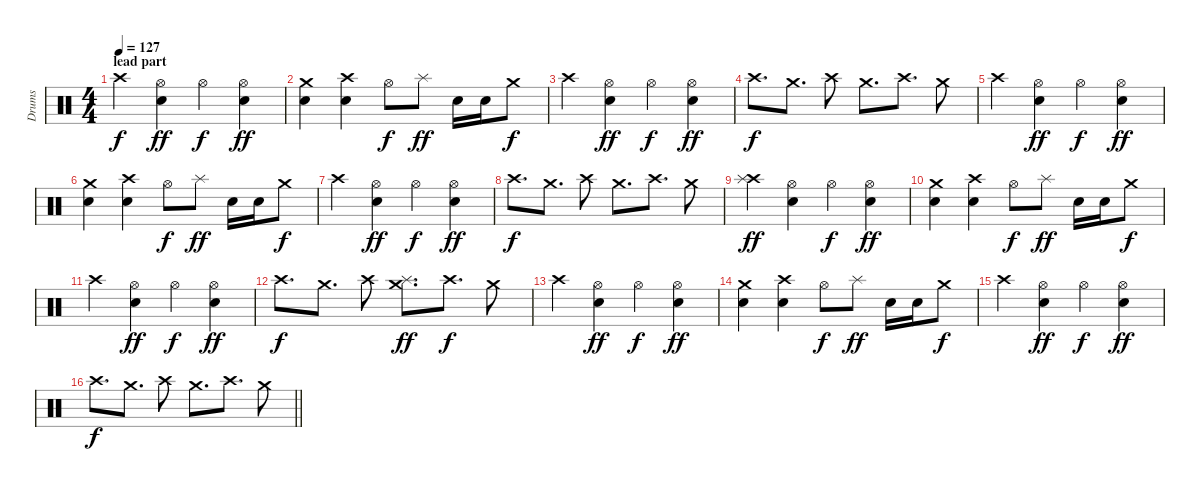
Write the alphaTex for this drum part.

\track ("Drums" "Drums") {instrument percussion}
\staff {score}
\articulation defaults
\ts (4 4)
\section ("" "lead part")
\tempo 127
\clef neutral
\ks c "Crash high (hit)".4{dy f}
("Hi-Hat (open)" "Snare (hit) 2").4{dy ff} "Hi-Hat (open)".4{dy f} ("Hi-Hat (open)" "Snare (hit) 2").4{dy ff} |
("Crash medium (hit)" "Snare (hit) 2").4 ("Crash high (hit)" "Snare (hit) 2").4 "Hi-Hat (open)".8{dy f} "Splash (hit)".8{dy ff} "Snare (hit) 2".16 "Snare (hit) 2".16 "Crash medium (hit)".8{dy f} |
"Crash high (hit)".4 ("Hi-Hat (open)" "Snare (hit) 2").4{dy ff} "Hi-Hat (open)".4{dy f} ("Hi-Hat (open)" "Snare (hit) 2").4{dy ff} |
"Crash high (hit)".8{d dy f} "Crash medium (hit)".8{d} "Crash high (hit)".8 "Crash medium (hit)".8{d} "Crash high (hit)".8{d} "Crash medium (hit)".8 |
"Crash high (hit)".4 ("Hi-Hat (open)" "Snare (hit) 2").4{dy ff} "Hi-Hat (open)".4{dy f} ("Hi-Hat (open)" "Snare (hit) 2").4{dy ff} |
("Crash medium (hit)" "Snare (hit) 2").4 ("Crash high (hit)" "Snare (hit) 2").4 "Hi-Hat (open)".8{dy f} "Splash (hit)".8{dy ff} "Snare (hit) 2".16 "Snare (hit) 2".16 "Crash medium (hit)".8{dy f} |
"Crash high (hit)".4 ("Hi-Hat (open)" "Snare (hit) 2").4{dy ff} "Hi-Hat (open)".4{dy f} ("Hi-Hat (open)" "Snare (hit) 2").4{dy ff} |
"Crash high (hit)".8{d dy f} "Crash medium (hit)".8{d} "Crash high (hit)".8 "Crash medium (hit)".8{d} "Crash high (hit)".8{d} "Crash medium (hit)".8 |
("Crash high (hit)" "Splash (hit)").4{dy ff} ("Hi-Hat (open)" "Snare (hit) 2").4 "Hi-Hat (open)".4{dy f} ("Hi-Hat (open)" "Snare (hit) 2").4{dy ff} |
("Crash medium (hit)" "Snare (hit) 2").4 ("Crash high (hit)" "Snare (hit) 2").4 "Hi-Hat (open)".8{dy f} "Splash (hit)".8{dy ff} "Snare (hit) 2".16 "Snare (hit) 2".16 "Crash medium (hit)".8{dy f} |
"Crash high (hit)".4 ("Hi-Hat (open)" "Snare (hit) 2").4{dy ff} "Hi-Hat (open)".4{dy f} ("Hi-Hat (open)" "Snare (hit) 2").4{dy ff} |
"Crash high (hit)".8{d dy f} "Crash medium (hit)".8{d} "Crash high (hit)".8 ("Crash medium (hit)" "Splash (hit)").8{d dy ff} "Crash high (hit)".8{d dy f} "Crash medium (hit)".8 |
"Crash high (hit)".4 ("Hi-Hat (open)" "Snare (hit) 2").4{dy ff} "Hi-Hat (open)".4{dy f} ("Hi-Hat (open)" "Snare (hit) 2").4{dy ff} |
("Crash medium (hit)" "Snare (hit) 2").4 ("Crash high (hit)" "Snare (hit) 2").4 "Hi-Hat (open)".8{dy f} "Splash (hit)".8{dy ff} "Snare (hit) 2".16 "Snare (hit) 2".16 "Crash medium (hit)".8{dy f} |
"Crash high (hit)".4 ("Hi-Hat (open)" "Snare (hit) 2").4{dy ff} "Hi-Hat (open)".4{dy f} ("Hi-Hat (open)" "Snare (hit) 2").4{dy ff} |
\barLineRight lightlight "Crash high (hit)".8{d dy f} "Crash medium (hit)".8{d} "Crash high (hit)".8 "Crash medium (hit)".8{d} "Crash high (hit)".8{d} "Crash medium (hit)".8
